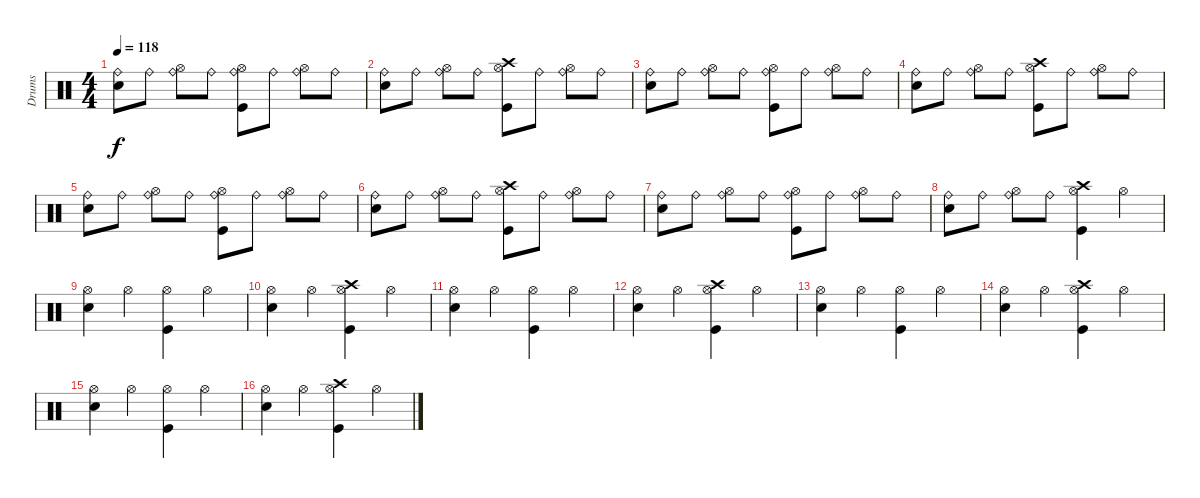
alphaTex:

\track ("Drums" "Drums") {instrument percussion}
\staff {score}
\articulation defaults
\ts (4 4)
\tempo 118
\clef neutral
\ks c
("Snare (hit) 2" "Ride (bell)").8{dy f} "Ride (bell)".8 ("Hi-Hat (open)" "Ride (bell)").8 "Ride (bell)".8 ("Kick (hit)" "Hi-Hat (open)" "Ride (bell)").8 "Ride (bell)".8 ("Hi-Hat (open)" "Ride (bell)").8 "Ride (bell)".8 |
("Snare (hit) 2" "Ride (bell)").8 "Ride (bell)".8 ("Hi-Hat (open)" "Ride (bell)").8 "Ride (bell)".8 ("Kick (hit)" "Hi-Hat (open)" "Crash high (hit)").8 "Ride (bell)".8 ("Hi-Hat (open)" "Ride (bell)").8 "Ride (bell)".8 |
("Snare (hit) 2" "Ride (bell)").8 "Ride (bell)".8 ("Hi-Hat (open)" "Ride (bell)").8 "Ride (bell)".8 ("Kick (hit)" "Hi-Hat (open)" "Ride (bell)").8 "Ride (bell)".8 ("Hi-Hat (open)" "Ride (bell)").8 "Ride (bell)".8 |
("Snare (hit) 2" "Ride (bell)").8 "Ride (bell)".8 ("Hi-Hat (open)" "Ride (bell)").8 "Ride (bell)".8 ("Kick (hit)" "Hi-Hat (open)" "Crash high (hit)").8 "Ride (bell)".8 ("Hi-Hat (open)" "Ride (bell)").8 "Ride (bell)".8 |
("Snare (hit) 2" "Ride (bell)").8 "Ride (bell)".8 ("Hi-Hat (open)" "Ride (bell)").8 "Ride (bell)".8 ("Kick (hit)" "Hi-Hat (open)" "Ride (bell)").8 "Ride (bell)".8 ("Hi-Hat (open)" "Ride (bell)").8 "Ride (bell)".8 |
("Snare (hit) 2" "Ride (bell)").8 "Ride (bell)".8 ("Hi-Hat (open)" "Ride (bell)").8 "Ride (bell)".8 ("Kick (hit)" "Hi-Hat (open)" "Crash high (hit)").8 "Ride (bell)".8 ("Hi-Hat (open)" "Ride (bell)").8 "Ride (bell)".8 |
("Snare (hit) 2" "Ride (bell)").8 "Ride (bell)".8 ("Hi-Hat (open)" "Ride (bell)").8 "Ride (bell)".8 ("Kick (hit)" "Hi-Hat (open)" "Ride (bell)").8 "Ride (bell)".8 ("Hi-Hat (open)" "Ride (bell)").8 "Ride (bell)".8 |
("Snare (hit) 2" "Ride (bell)").8 "Ride (bell)".8 ("Hi-Hat (open)" "Ride (bell)").8 "Ride (bell)".8 ("Kick (hit)" "Hi-Hat (open)" "Crash high (hit)").4 "Hi-Hat (open)".4 |
("Snare (hit) 2" "Hi-Hat (open)").4 "Hi-Hat (open)".4 ("Kick (hit)" "Hi-Hat (open)").4 "Hi-Hat (open)".4 |
("Snare (hit) 2" "Hi-Hat (open)").4 "Hi-Hat (open)".4 ("Kick (hit)" "Hi-Hat (open)" "Crash high (hit)").4 "Hi-Hat (open)".4 |
("Snare (hit) 2" "Hi-Hat (open)").4 "Hi-Hat (open)".4 ("Kick (hit)" "Hi-Hat (open)").4 "Hi-Hat (open)".4 |
("Snare (hit) 2" "Hi-Hat (open)").4 "Hi-Hat (open)".4 ("Kick (hit)" "Hi-Hat (open)" "Crash high (hit)").4 "Hi-Hat (open)".4 |
("Snare (hit) 2" "Hi-Hat (open)").4 "Hi-Hat (open)".4 ("Kick (hit)" "Hi-Hat (open)").4 "Hi-Hat (open)".4 |
("Snare (hit) 2" "Hi-Hat (open)").4 "Hi-Hat (open)".4 ("Kick (hit)" "Hi-Hat (open)" "Crash high (hit)").4 "Hi-Hat (open)".4 |
("Snare (hit) 2" "Hi-Hat (open)").4 "Hi-Hat (open)".4 ("Kick (hit)" "Hi-Hat (open)").4 "Hi-Hat (open)".4 |
("Snare (hit) 2" "Hi-Hat (open)").4 "Hi-Hat (open)".4 ("Kick (hit)" "Hi-Hat (open)" "Crash high (hit)").4 "Hi-Hat (open)".4
